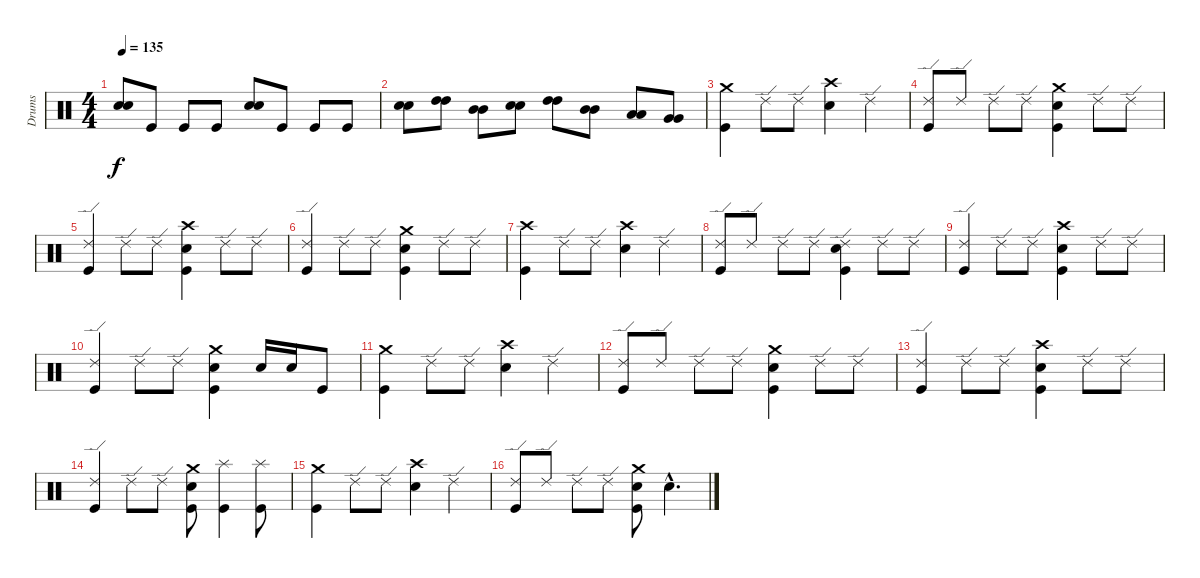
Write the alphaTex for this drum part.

\track ("Drums" "Drums") {instrument percussion}
\staff {score}
\articulation defaults
\ts (4 4)
\tempo 135
\clef neutral
\ks c
("Snare (hit) 2" "Snare (hit) 2").8{dy f} "Kick (hit)".8 "Kick (hit)".8 "Kick (hit)".8 ("Snare (hit) 2" "Snare (hit) 2").8 "Kick (hit)".8 "Kick (hit)".8 "Kick (hit)".8 |
("Snare (hit) 2" "Snare (hit) 2").8 ("High Tom (hit)" "High Tom (hit)").8 ("Mid Tom (hit)" "Mid Tom (hit)").8 ("Snare (hit) 2" "Snare (hit) 2").8 ("High Tom (hit)" "High Tom (hit)").8 ("Mid Tom (hit)" "Mid Tom (hit)").8 ("Low Tom (hit)" "Low Tom (hit)").8 ("Very Low Tom (hit)" "Very Low Tom (hit)").8 |
("Crash medium (hit)" "Kick (hit)").4 "Ride (edge) 2".8 "Ride (edge) 2".8 ("Crash high (hit)" "Snare (hit) 2").4 "Ride (edge) 2".4 |
("Ride (edge) 2" "Kick (hit)").8 "Ride (edge) 2".8 "Ride (edge) 2".8 "Ride (edge) 2".8 ("Crash medium (hit)" "Snare (hit) 2" "Kick (hit)").4 "Ride (edge) 2".8 "Ride (edge) 2".8 |
("Ride (edge) 2" "Kick (hit)").4 "Ride (edge) 2".8 "Ride (edge) 2".8 ("Crash high (hit)" "Snare (hit) 2" "Kick (hit)").4 "Ride (edge) 2".8 "Ride (edge) 2".8 |
("Ride (edge) 2" "Kick (hit)").4 "Ride (edge) 2".8 "Ride (edge) 2".8 ("Crash medium (hit)" "Snare (hit) 2" "Kick (hit)").4 "Ride (edge) 2".8 "Ride (edge) 2".8 |
("Crash high (hit)" "Kick (hit)").4 "Ride (edge) 2".8 "Ride (edge) 2".8 ("Crash high (hit)" "Snare (hit) 2").4 "Ride (edge) 2".4 |
("Ride (edge) 2" "Kick (hit)").8 "Ride (edge) 2".8 "Ride (edge) 2".8 "Ride (edge) 2".8 ("Ride (edge) 2" "Snare (hit) 2" "Kick (hit)").4 "Ride (edge) 2".8 "Ride (edge) 2".8 |
("Ride (edge) 2" "Kick (hit)").4 "Ride (edge) 2".8 "Ride (edge) 2".8 ("Crash high (hit)" "Snare (hit) 2" "Kick (hit)").4 "Ride (edge) 2".8 "Ride (edge) 2".8 |
("Ride (edge) 2" "Kick (hit)").4 "Ride (edge) 2".8 "Ride (edge) 2".8 ("Crash medium (hit)" "Snare (hit) 2" "Kick (hit)").4 "Snare (hit) 2".16 "Snare (hit) 2".16 "Kick (hit)".8 |
("Crash medium (hit)" "Kick (hit)").4 "Ride (edge) 2".8 "Ride (edge) 2".8 ("Crash high (hit)" "Snare (hit) 2").4 "Ride (edge) 2".4 |
("Ride (edge) 2" "Kick (hit)").8 "Ride (edge) 2".8 "Ride (edge) 2".8 "Ride (edge) 2".8 ("Crash medium (hit)" "Snare (hit) 2" "Kick (hit)").4 "Ride (edge) 2".8 "Ride (edge) 2".8 |
("Ride (edge) 2" "Kick (hit)").4 "Ride (edge) 2".8 "Ride (edge) 2".8 ("Crash high (hit)" "Snare (hit) 2" "Kick (hit)").4 "Ride (edge) 2".8 "Ride (edge) 2".8 |
("Ride (edge) 2" "Kick (hit)").4 "Ride (edge) 2".8 "Ride (edge) 2".8 ("Crash medium (hit)" "Snare (hit) 2" "Kick (hit)").8 ("Splash (hit)" "Kick (hit)").4 ("Splash (hit)" "Kick (hit)").8 |
("Crash medium (hit)" "Kick (hit)").4 "Ride (edge) 2".8 "Ride (edge) 2".8 ("Crash high (hit)" "Snare (hit) 2").4 "Ride (edge) 2".4 |
("Ride (edge) 2" "Kick (hit)").8 "Ride (edge) 2".8 "Ride (edge) 2".8 "Ride (edge) 2".8 ("Crash medium (hit)" "Snare (hit) 2" "Kick (hit)").8 "Snare (hit) 2"{hac}.4{d}
